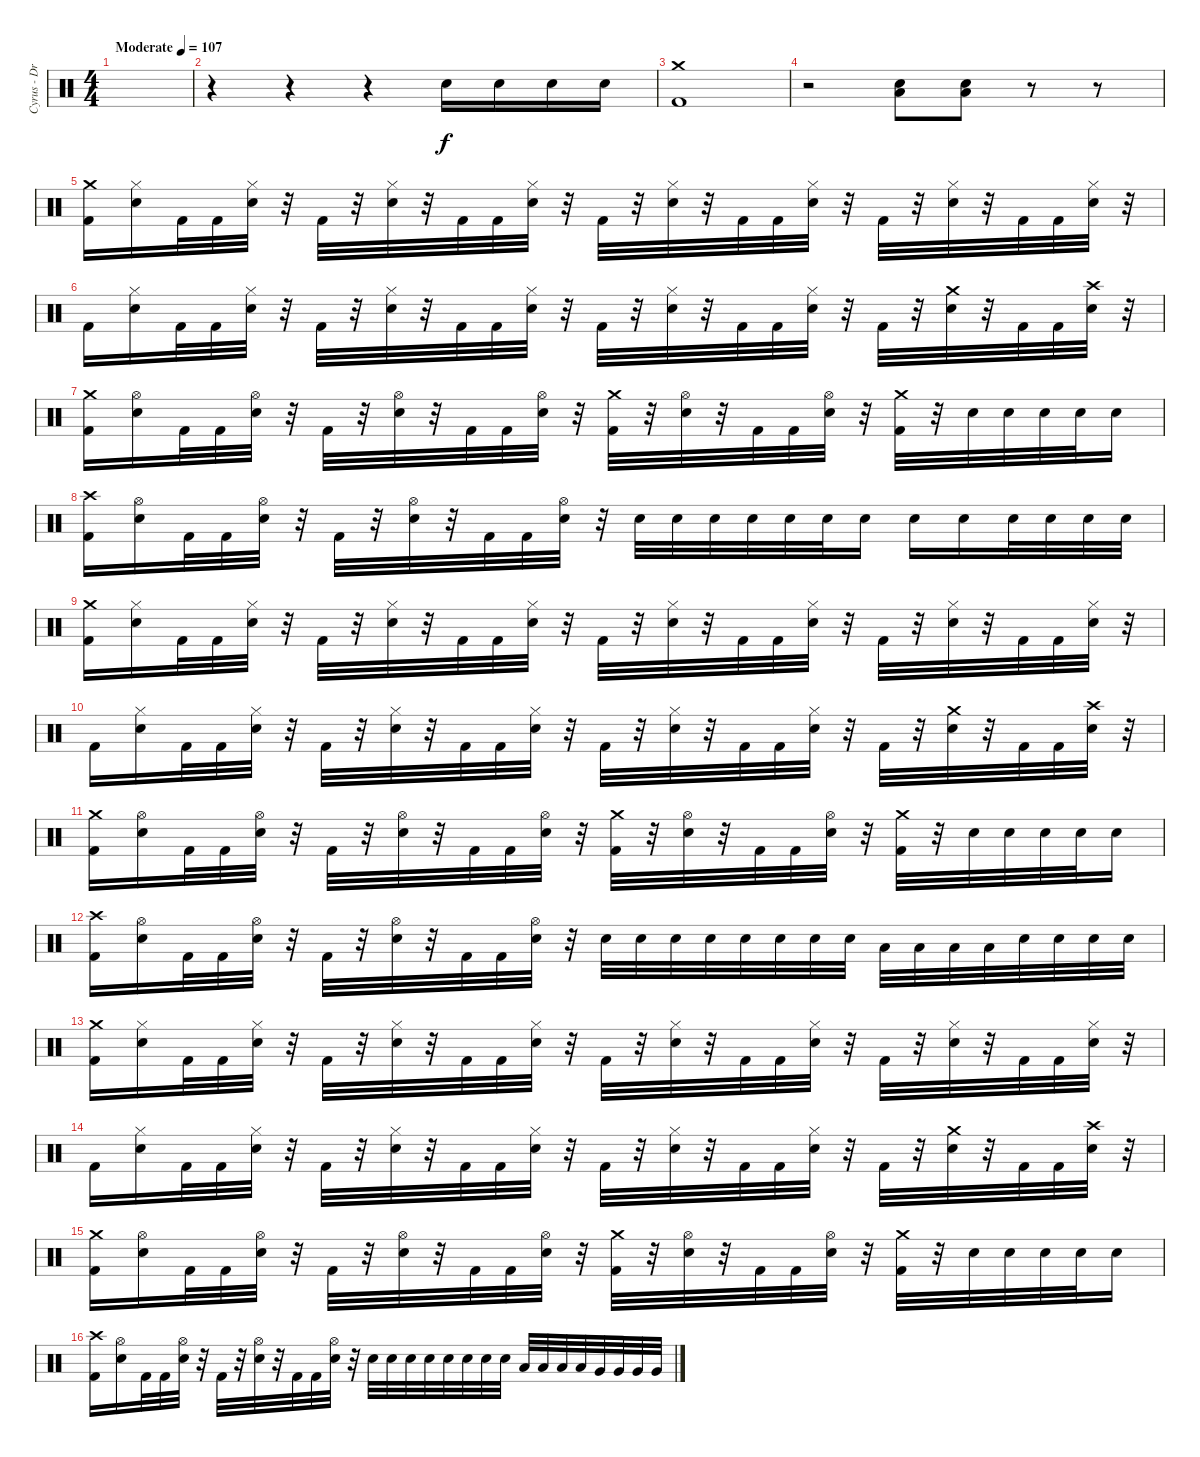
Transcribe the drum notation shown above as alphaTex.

\track ("Cyrus - Drums" "Cyrus - Dr") {instrument percussion}
\staff {score}
\articulation defaults
\ts (4 4)
\tempo (107 "Moderate")
\clef neutral
\ks c
|
r.4 r.4 r.4 "Electric Snare (hit)".16 "Electric Snare (hit)".16 "Electric Snare (hit)".16 "Electric Snare (hit)".16 |
("Crash medium (hit)" "Kick (hit) 2").1 |
r.2 ("Electric Snare (hit)" "Low Tom (hit)").8 ("Electric Snare (hit)" "Low Tom (hit)").8 r.8 r.8 |
("Crash medium (hit)" "Kick (hit) 2").16 ("Hi-Hat (closed)" "Electric Snare (hit)").16 "Kick (hit) 2".32 "Kick (hit) 2".32 ("Hi-Hat (closed)" "Electric Snare (hit)").32 r.32 "Kick (hit) 2".32 r.32 ("Hi-Hat (closed)" "Electric Snare (hit)").32 r.32 "Kick (hit) 2".32 "Kick (hit) 2".32 ("Hi-Hat (closed)" "Electric Snare (hit)").32 r.32 "Kick (hit) 2".32 r.32 ("Hi-Hat (closed)" "Electric Snare (hit)").32 r.32 "Kick (hit) 2".32 "Kick (hit) 2".32 ("Hi-Hat (closed)" "Electric Snare (hit)").32 r.32 "Kick (hit) 2".32 r.32 ("Hi-Hat (closed)" "Electric Snare (hit)").32 r.32 "Kick (hit) 2".32 "Kick (hit) 2".32 ("Hi-Hat (closed)" "Electric Snare (hit)").32 r.32 |
"Kick (hit) 2".16 ("Hi-Hat (closed)" "Electric Snare (hit)").16 "Kick (hit) 2".32 "Kick (hit) 2".32 ("Hi-Hat (closed)" "Electric Snare (hit)").32 r.32 "Kick (hit) 2".32 r.32 ("Hi-Hat (closed)" "Electric Snare (hit)").32 r.32 "Kick (hit) 2".32 "Kick (hit) 2".32 ("Hi-Hat (closed)" "Electric Snare (hit)").32 r.32 "Kick (hit) 2".32 r.32 ("Hi-Hat (closed)" "Electric Snare (hit)").32 r.32 "Kick (hit) 2".32 "Kick (hit) 2".32 ("Hi-Hat (closed)" "Electric Snare (hit)").32 r.32 "Kick (hit) 2".32 r.32 ("Crash medium (hit)" "Electric Snare (hit)").32 r.32 "Kick (hit) 2".32 "Kick (hit) 2".32 ("Crash high (hit)" "Electric Snare (hit)").32 r.32 |
("Crash medium (hit)" "Kick (hit) 2").16 ("Hi-Hat (open)" "Electric Snare (hit)").16 "Kick (hit) 2".32 "Kick (hit) 2".32 ("Hi-Hat (open)" "Electric Snare (hit)").32 r.32 "Kick (hit) 2".32 r.32 ("Hi-Hat (open)" "Electric Snare (hit)").32 r.32 "Kick (hit) 2".32 "Kick (hit) 2".32 ("Hi-Hat (open)" "Electric Snare (hit)").32 r.32 ("Crash medium (hit)" "Kick (hit) 2").32 r.32 ("Hi-Hat (open)" "Electric Snare (hit)").32 r.32 "Kick (hit) 2".32 "Kick (hit) 2".32 ("Hi-Hat (open)" "Electric Snare (hit)").32 r.32 ("Crash medium (hit)" "Kick (hit) 2").32 r.32 "Electric Snare (hit)".32 "Electric Snare (hit)".32 "Electric Snare (hit)".32 "Electric Snare (hit)".32 "Electric Snare (hit)".16 |
("Crash high (hit)" "Kick (hit) 2").16 ("Hi-Hat (open)" "Electric Snare (hit)").16 "Kick (hit) 2".32 "Kick (hit) 2".32 ("Hi-Hat (open)" "Electric Snare (hit)").32 r.32 "Kick (hit) 2".32 r.32 ("Hi-Hat (open)" "Electric Snare (hit)").32 r.32 "Kick (hit) 2".32 "Kick (hit) 2".32 ("Hi-Hat (open)" "Electric Snare (hit)").32 r.32 "Electric Snare (hit)".32 "Electric Snare (hit)".32 "Electric Snare (hit)".32 "Electric Snare (hit)".32 "Electric Snare (hit)".32 "Electric Snare (hit)".32 "Electric Snare (hit)".16 "Electric Snare (hit)".16 "Electric Snare (hit)".16 "Electric Snare (hit)".32 "Electric Snare (hit)".32 "Electric Snare (hit)".32 "Electric Snare (hit)".32 |
("Crash medium (hit)" "Kick (hit) 2").16 ("Hi-Hat (closed)" "Electric Snare (hit)").16 "Kick (hit) 2".32 "Kick (hit) 2".32 ("Hi-Hat (closed)" "Electric Snare (hit)").32 r.32 "Kick (hit) 2".32 r.32 ("Hi-Hat (closed)" "Electric Snare (hit)").32 r.32 "Kick (hit) 2".32 "Kick (hit) 2".32 ("Hi-Hat (closed)" "Electric Snare (hit)").32 r.32 "Kick (hit) 2".32 r.32 ("Hi-Hat (closed)" "Electric Snare (hit)").32 r.32 "Kick (hit) 2".32 "Kick (hit) 2".32 ("Hi-Hat (closed)" "Electric Snare (hit)").32 r.32 "Kick (hit) 2".32 r.32 ("Hi-Hat (closed)" "Electric Snare (hit)").32 r.32 "Kick (hit) 2".32 "Kick (hit) 2".32 ("Hi-Hat (closed)" "Electric Snare (hit)").32 r.32 |
"Kick (hit) 2".16 ("Hi-Hat (closed)" "Electric Snare (hit)").16 "Kick (hit) 2".32 "Kick (hit) 2".32 ("Hi-Hat (closed)" "Electric Snare (hit)").32 r.32 "Kick (hit) 2".32 r.32 ("Hi-Hat (closed)" "Electric Snare (hit)").32 r.32 "Kick (hit) 2".32 "Kick (hit) 2".32 ("Hi-Hat (closed)" "Electric Snare (hit)").32 r.32 "Kick (hit) 2".32 r.32 ("Hi-Hat (closed)" "Electric Snare (hit)").32 r.32 "Kick (hit) 2".32 "Kick (hit) 2".32 ("Hi-Hat (closed)" "Electric Snare (hit)").32 r.32 "Kick (hit) 2".32 r.32 ("Crash medium (hit)" "Electric Snare (hit)").32 r.32 "Kick (hit) 2".32 "Kick (hit) 2".32 ("Crash high (hit)" "Electric Snare (hit)").32 r.32 |
("Crash medium (hit)" "Kick (hit) 2").16 ("Hi-Hat (open)" "Electric Snare (hit)").16 "Kick (hit) 2".32 "Kick (hit) 2".32 ("Hi-Hat (open)" "Electric Snare (hit)").32 r.32 "Kick (hit) 2".32 r.32 ("Hi-Hat (open)" "Electric Snare (hit)").32 r.32 "Kick (hit) 2".32 "Kick (hit) 2".32 ("Hi-Hat (open)" "Electric Snare (hit)").32 r.32 ("Crash medium (hit)" "Kick (hit) 2").32 r.32 ("Hi-Hat (open)" "Electric Snare (hit)").32 r.32 "Kick (hit) 2".32 "Kick (hit) 2".32 ("Hi-Hat (open)" "Electric Snare (hit)").32 r.32 ("Crash medium (hit)" "Kick (hit) 2").32 r.32 "Electric Snare (hit)".32 "Electric Snare (hit)".32 "Electric Snare (hit)".32 "Electric Snare (hit)".32 "Electric Snare (hit)".16 |
("Crash high (hit)" "Kick (hit) 2").16 ("Hi-Hat (open)" "Electric Snare (hit)").16 "Kick (hit) 2".32 "Kick (hit) 2".32 ("Hi-Hat (open)" "Electric Snare (hit)").32 r.32 "Kick (hit) 2".32 r.32 ("Hi-Hat (open)" "Electric Snare (hit)").32 r.32 "Kick (hit) 2".32 "Kick (hit) 2".32 ("Hi-Hat (open)" "Electric Snare (hit)").32 r.32 "Electric Snare (hit)".32 "Electric Snare (hit)".32 "Electric Snare (hit)".32 "Electric Snare (hit)".32 "Electric Snare (hit)".32 "Electric Snare (hit)".32 "Electric Snare (hit)".32 "Electric Snare (hit)".32 "Low Tom (hit)".32 "Low Tom (hit)".32 "Low Tom (hit)".32 "Low Tom (hit)".32 "Electric Snare (hit)".32 "Electric Snare (hit)".32 "Electric Snare (hit)".32 "Electric Snare (hit)".32 |
("Crash medium (hit)" "Kick (hit) 2").16 ("Hi-Hat (closed)" "Electric Snare (hit)").16 "Kick (hit) 2".32 "Kick (hit) 2".32 ("Hi-Hat (closed)" "Electric Snare (hit)").32 r.32 "Kick (hit) 2".32 r.32 ("Hi-Hat (closed)" "Electric Snare (hit)").32 r.32 "Kick (hit) 2".32 "Kick (hit) 2".32 ("Hi-Hat (closed)" "Electric Snare (hit)").32 r.32 "Kick (hit) 2".32 r.32 ("Hi-Hat (closed)" "Electric Snare (hit)").32 r.32 "Kick (hit) 2".32 "Kick (hit) 2".32 ("Hi-Hat (closed)" "Electric Snare (hit)").32 r.32 "Kick (hit) 2".32 r.32 ("Hi-Hat (closed)" "Electric Snare (hit)").32 r.32 "Kick (hit) 2".32 "Kick (hit) 2".32 ("Hi-Hat (closed)" "Electric Snare (hit)").32 r.32 |
"Kick (hit) 2".16 ("Hi-Hat (closed)" "Electric Snare (hit)").16 "Kick (hit) 2".32 "Kick (hit) 2".32 ("Hi-Hat (closed)" "Electric Snare (hit)").32 r.32 "Kick (hit) 2".32 r.32 ("Hi-Hat (closed)" "Electric Snare (hit)").32 r.32 "Kick (hit) 2".32 "Kick (hit) 2".32 ("Hi-Hat (closed)" "Electric Snare (hit)").32 r.32 "Kick (hit) 2".32 r.32 ("Hi-Hat (closed)" "Electric Snare (hit)").32 r.32 "Kick (hit) 2".32 "Kick (hit) 2".32 ("Hi-Hat (closed)" "Electric Snare (hit)").32 r.32 "Kick (hit) 2".32 r.32 ("Crash medium (hit)" "Electric Snare (hit)").32 r.32 "Kick (hit) 2".32 "Kick (hit) 2".32 ("Crash high (hit)" "Electric Snare (hit)").32 r.32 |
("Crash medium (hit)" "Kick (hit) 2").16 ("Hi-Hat (open)" "Electric Snare (hit)").16 "Kick (hit) 2".32 "Kick (hit) 2".32 ("Hi-Hat (open)" "Electric Snare (hit)").32 r.32 "Kick (hit) 2".32 r.32 ("Hi-Hat (open)" "Electric Snare (hit)").32 r.32 "Kick (hit) 2".32 "Kick (hit) 2".32 ("Hi-Hat (open)" "Electric Snare (hit)").32 r.32 ("Crash medium (hit)" "Kick (hit) 2").32 r.32 ("Hi-Hat (open)" "Electric Snare (hit)").32 r.32 "Kick (hit) 2".32 "Kick (hit) 2".32 ("Hi-Hat (open)" "Electric Snare (hit)").32 r.32 ("Crash medium (hit)" "Kick (hit) 2").32 r.32 "Electric Snare (hit)".32 "Electric Snare (hit)".32 "Electric Snare (hit)".32 "Electric Snare (hit)".32 "Electric Snare (hit)".16 |
("Crash high (hit)" "Kick (hit) 2").16 ("Hi-Hat (open)" "Electric Snare (hit)").16 "Kick (hit) 2".32 "Kick (hit) 2".32 ("Hi-Hat (open)" "Electric Snare (hit)").32 r.32 "Kick (hit) 2".32 r.32 ("Hi-Hat (open)" "Electric Snare (hit)").32 r.32 "Kick (hit) 2".32 "Kick (hit) 2".32 ("Hi-Hat (open)" "Electric Snare (hit)").32 r.32 "Electric Snare (hit)".32 "Electric Snare (hit)".32 "Electric Snare (hit)".32 "Electric Snare (hit)".32 "Electric Snare (hit)".32 "Electric Snare (hit)".32 "Electric Snare (hit)".32 "Electric Snare (hit)".32 "Low Tom (hit)".32 "Low Tom (hit)".32 "Low Tom (hit)".32 "Low Tom (hit)".32 "Very Low Tom (hit)".32 "Very Low Tom (hit)".32 "Very Low Tom (hit)".32 "Very Low Tom (hit)".32
